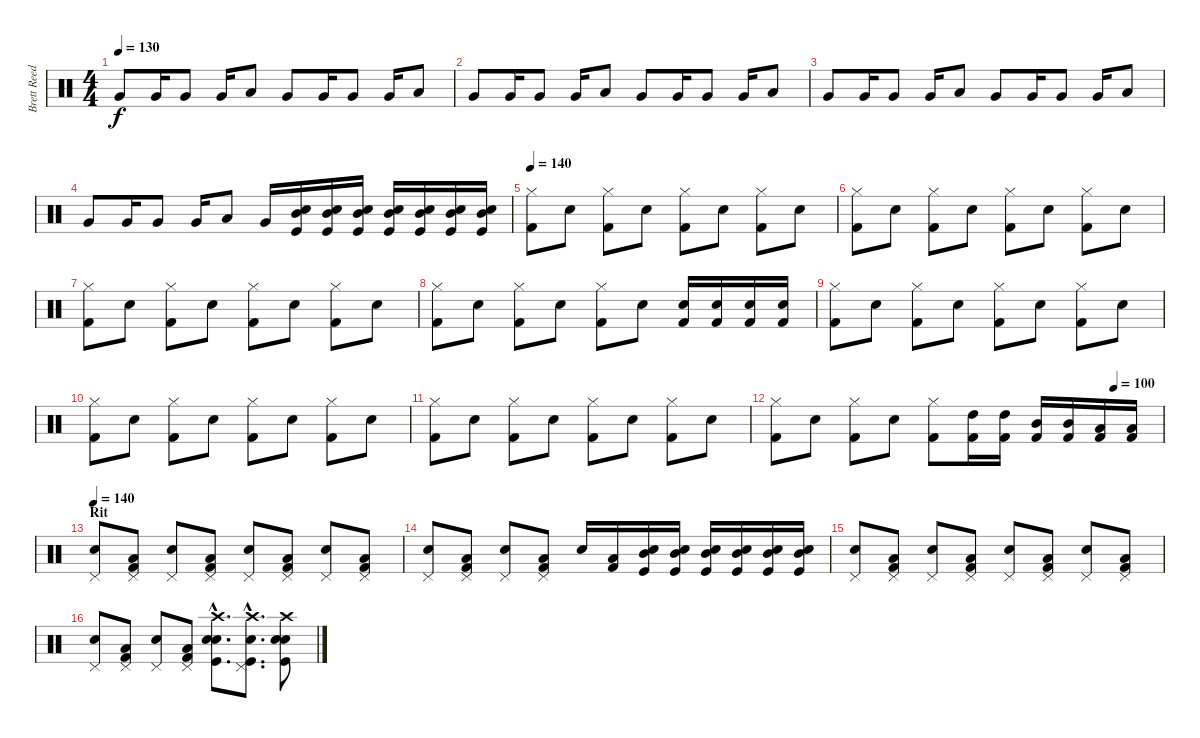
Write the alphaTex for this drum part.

\track ("Brett Reed (Drums)" "Brett Reed") {instrument percussion}
\staff {score}
\articulation defaults
\ts (4 4)
\tempo 130
\clef neutral
\ks c "Very Low Tom (hit)".8{dy f} "Very Low Tom (hit)".16 "Very Low Tom (hit)".8 "Very Low Tom (hit)".16 "Low Tom (hit)".8 "Very Low Tom (hit)".8 "Very Low Tom (hit)".16 "Very Low Tom (hit)".8 "Very Low Tom (hit)".16 "Low Tom (hit)".8
|
"Very Low Tom (hit)".8 "Very Low Tom (hit)".16 "Very Low Tom (hit)".8 "Very Low Tom (hit)".16 "Low Tom (hit)".8 "Very Low Tom (hit)".8 "Very Low Tom (hit)".16 "Very Low Tom (hit)".8 "Very Low Tom (hit)".16 "Low Tom (hit)".8 |
"Very Low Tom (hit)".8 "Very Low Tom (hit)".16 "Very Low Tom (hit)".8 "Very Low Tom (hit)".16 "Low Tom (hit)".8 "Very Low Tom (hit)".8 "Very Low Tom (hit)".16 "Very Low Tom (hit)".8 "Very Low Tom (hit)".16 "Low Tom (hit)".8 |
"Very Low Tom (hit)".8 "Very Low Tom (hit)".16 "Very Low Tom (hit)".8 "Very Low Tom (hit)".16 "Low Tom (hit)".8 "Very Low Tom (hit)".16 ("Mid Tom (hit)" "Snare (hit) 2" "Kick (hit)").16 ("Mid Tom (hit)" "Snare (hit) 2" "Kick (hit)").16 ("Mid Tom (hit)" "Snare (hit) 2" "Kick (hit)").16 ("Mid Tom (hit)" "Snare (hit) 2" "Kick (hit)").16 ("Mid Tom (hit)" "Snare (hit) 2" "Kick (hit)").16 ("Mid Tom (hit)" "Snare (hit) 2" "Kick (hit)").16 ("Mid Tom (hit)" "Snare (hit) 2" "Kick (hit)").16 |
\tempo 140
("Kick (hit) 2" "Hi-Hat (closed)").8 "Snare (hit) 2".8 ("Kick (hit) 2" "Hi-Hat (closed)").8 "Snare (hit) 2".8 ("Kick (hit) 2" "Hi-Hat (closed)").8 "Snare (hit) 2".8 ("Kick (hit) 2" "Hi-Hat (closed)").8 "Snare (hit) 2".8 |
("Kick (hit) 2" "Hi-Hat (closed)").8 "Snare (hit) 2".8 ("Kick (hit) 2" "Hi-Hat (closed)").8 "Snare (hit) 2".8 ("Kick (hit) 2" "Hi-Hat (closed)").8 "Snare (hit) 2".8 ("Kick (hit) 2" "Hi-Hat (closed)").8 "Snare (hit) 2".8 |
("Kick (hit) 2" "Hi-Hat (closed)").8 "Snare (hit) 2".8 ("Kick (hit) 2" "Hi-Hat (closed)").8 "Snare (hit) 2".8 ("Kick (hit) 2" "Hi-Hat (closed)").8 "Snare (hit) 2".8 ("Kick (hit) 2" "Hi-Hat (closed)").8 "Snare (hit) 2".8 |
("Kick (hit) 2" "Hi-Hat (closed)").8 "Snare (hit) 2".8 ("Kick (hit) 2" "Hi-Hat (closed)").8 "Snare (hit) 2".8 ("Kick (hit) 2" "Hi-Hat (closed)").8 "Snare (hit) 2".8 ("Kick (hit) 2" "Snare (hit) 2").16 ("Kick (hit) 2" "Snare (hit) 2").16 ("Kick (hit) 2" "Snare (hit) 2").16 ("Kick (hit) 2" "Snare (hit) 2").16 |
("Kick (hit) 2" "Hi-Hat (closed)").8 "Snare (hit) 2".8 ("Kick (hit) 2" "Hi-Hat (closed)").8 "Snare (hit) 2".8 ("Kick (hit) 2" "Hi-Hat (closed)").8 "Snare (hit) 2".8 ("Kick (hit) 2" "Hi-Hat (closed)").8 "Snare (hit) 2".8 |
("Kick (hit) 2" "Hi-Hat (closed)").8 "Snare (hit) 2".8 ("Kick (hit) 2" "Hi-Hat (closed)").8 "Snare (hit) 2".8 ("Kick (hit) 2" "Hi-Hat (closed)").8 "Snare (hit) 2".8 ("Kick (hit) 2" "Hi-Hat (closed)").8 "Snare (hit) 2".8 |
("Kick (hit) 2" "Hi-Hat (closed)").8 "Snare (hit) 2".8 ("Kick (hit) 2" "Hi-Hat (closed)").8 "Snare (hit) 2".8 ("Kick (hit) 2" "Hi-Hat (closed)").8 "Snare (hit) 2".8 ("Kick (hit) 2" "Hi-Hat (closed)").8 "Snare (hit) 2".8 |
\tempo (100 0.875)
("Kick (hit) 2" "Hi-Hat (closed)").8 "Snare (hit) 2".8 ("Kick (hit) 2" "Hi-Hat (closed)").8 "Snare (hit) 2".8 ("Kick (hit) 2" "Hi-Hat (closed)").8 ("Kick (hit) 2" "High Tom (hit)").16 ("Kick (hit) 2" "High Tom (hit)").16 ("Kick (hit) 2" "Mid Tom (hit)").16 ("Kick (hit) 2" "Mid Tom (hit)").16 ("Kick (hit) 2" "Low Tom (hit)").16 ("Kick (hit) 2" "Low Tom (hit)").16 |
\section ("" "Rit")
\tempo 140
("Snare (hit) 2" "Pedal Hi-Hat (hit)").8 ("Kick (hit) 2" "Low Floor Tom (hit)" "Pedal Hi-Hat (hit)").8 ("Snare (hit) 2" "Pedal Hi-Hat (hit)").8 ("Kick (hit) 2" "Low Floor Tom (hit)" "Pedal Hi-Hat (hit)").8 ("Snare (hit) 2" "Pedal Hi-Hat (hit)").8 ("Kick (hit) 2" "Low Floor Tom (hit)" "Pedal Hi-Hat (hit)").8 ("Snare (hit) 2" "Pedal Hi-Hat (hit)").8 ("Kick (hit) 2" "Low Floor Tom (hit)" "Pedal Hi-Hat (hit)").8 |
("Snare (hit) 2" "Pedal Hi-Hat (hit)").8 ("Kick (hit) 2" "Low Floor Tom (hit)" "Pedal Hi-Hat (hit)").8 ("Snare (hit) 2" "Pedal Hi-Hat (hit)").8 ("Kick (hit) 2" "Low Floor Tom (hit)" "Pedal Hi-Hat (hit)").8 "Snare (hit) 2".16 ("Kick (hit) 2" "Low Floor Tom (hit)").16 ("Mid Tom (hit)" "Snare (hit) 2" "Kick (hit)").16 ("Mid Tom (hit)" "Snare (hit) 2" "Kick (hit)").16 ("Mid Tom (hit)" "Snare (hit) 2" "Kick (hit)").16 ("Mid Tom (hit)" "Snare (hit) 2" "Kick (hit)").16 ("Mid Tom (hit)" "Snare (hit) 2" "Kick (hit)").16 ("Mid Tom (hit)" "Snare (hit) 2" "Kick (hit)").16 |
("Snare (hit) 2" "Pedal Hi-Hat (hit)").8 ("Kick (hit) 2" "Low Floor Tom (hit)" "Pedal Hi-Hat (hit)").8 ("Snare (hit) 2" "Pedal Hi-Hat (hit)").8 ("Kick (hit) 2" "Low Floor Tom (hit)" "Pedal Hi-Hat (hit)").8 ("Snare (hit) 2" "Pedal Hi-Hat (hit)").8 ("Kick (hit) 2" "Low Floor Tom (hit)" "Pedal Hi-Hat (hit)").8 ("Snare (hit) 2" "Pedal Hi-Hat (hit)").8 ("Kick (hit) 2" "Low Floor Tom (hit)" "Pedal Hi-Hat (hit)").8 |
("Snare (hit) 2" "Pedal Hi-Hat (hit)").8 ("Kick (hit) 2" "Low Floor Tom (hit)" "Pedal Hi-Hat (hit)").8 ("Snare (hit) 2" "Pedal Hi-Hat (hit)").8 ("Kick (hit) 2" "Low Floor Tom (hit)" "Pedal Hi-Hat (hit)").8 ("Snare (hit) 2"{hac} "Kick (hit)"{hac} "Crash high (hit)"{hac} "Electric Snare (hit)"{hac}).8{d} ("Snare (hit) 2"{hac} "Kick (hit)"{hac} "Crash high (hit)"{hac} "Pedal Hi-Hat (hit)"{hac}).8{d} ("Snare (hit) 2" "Kick (hit)" "Crash high (hit)" "Electric Snare (hit)").8
